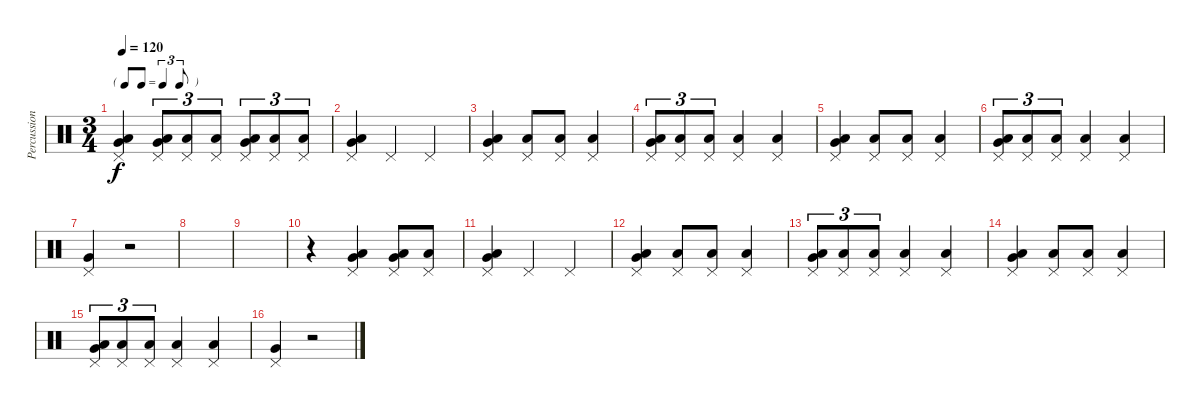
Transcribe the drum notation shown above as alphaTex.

\track ("Percussions" "Percussion") {instrument percussion}
\staff {score}
\articulation defaults
\ts (3 4)
\tf triplet8th
\tempo 120
\clef neutral
\ks c
("Pedal Hi-Hat (hit)" "Low Tom (hit)" "Very Low Tom (hit)").4{dy f} ("Pedal Hi-Hat (hit)" "Low Tom (hit)" "Very Low Tom (hit)").8{tu (3 2)} ("Pedal Hi-Hat (hit)" "Low Tom (hit)").8{tu (3 2)} ("Pedal Hi-Hat (hit)" "Low Tom (hit)").8{tu (3 2)} ("Pedal Hi-Hat (hit)" "Low Tom (hit)" "Very Low Tom (hit)").8{tu (3 2)} ("Pedal Hi-Hat (hit)" "Low Tom (hit)").8{tu (3 2)} ("Pedal Hi-Hat (hit)" "Low Tom (hit)").8{tu (3 2)} |
("Pedal Hi-Hat (hit)" "Low Tom (hit)" "Very Low Tom (hit)").4 "Pedal Hi-Hat (hit)".4 "Pedal Hi-Hat (hit)".4 |
("Pedal Hi-Hat (hit)" "Low Tom (hit)" "Very Low Tom (hit)").4 ("Pedal Hi-Hat (hit)" "Low Tom (hit)").8 ("Pedal Hi-Hat (hit)" "Low Tom (hit)").8 ("Pedal Hi-Hat (hit)" "Low Tom (hit)").4 |
("Pedal Hi-Hat (hit)" "Low Tom (hit)" "Very Low Tom (hit)").8{tu (3 2)} ("Pedal Hi-Hat (hit)" "Low Tom (hit)").8{tu (3 2)} ("Pedal Hi-Hat (hit)" "Low Tom (hit)").8{tu (3 2)} ("Pedal Hi-Hat (hit)" "Low Tom (hit)").4 ("Pedal Hi-Hat (hit)" "Low Tom (hit)").4 |
("Pedal Hi-Hat (hit)" "Low Tom (hit)" "Very Low Tom (hit)").4 ("Pedal Hi-Hat (hit)" "Low Tom (hit)").8 ("Pedal Hi-Hat (hit)" "Low Tom (hit)").8 ("Pedal Hi-Hat (hit)" "Low Tom (hit)").4 |
("Pedal Hi-Hat (hit)" "Low Tom (hit)" "Very Low Tom (hit)").8{tu (3 2)} ("Pedal Hi-Hat (hit)" "Low Tom (hit)").8{tu (3 2)} ("Pedal Hi-Hat (hit)" "Low Tom (hit)").8{tu (3 2)} ("Pedal Hi-Hat (hit)" "Low Tom (hit)").4 ("Pedal Hi-Hat (hit)" "Low Tom (hit)").4 |
("Pedal Hi-Hat (hit)" "Very Low Tom (hit)").4 r.2 |
|
|
r.4 ("Pedal Hi-Hat (hit)" "Low Tom (hit)" "Very Low Tom (hit)").4 ("Pedal Hi-Hat (hit)" "Low Tom (hit)" "Very Low Tom (hit)").8 ("Pedal Hi-Hat (hit)" "Low Tom (hit)").8 |
("Pedal Hi-Hat (hit)" "Low Tom (hit)" "Very Low Tom (hit)").4 "Pedal Hi-Hat (hit)".4 "Pedal Hi-Hat (hit)".4 |
("Pedal Hi-Hat (hit)" "Low Tom (hit)" "Very Low Tom (hit)").4 ("Pedal Hi-Hat (hit)" "Low Tom (hit)").8 ("Pedal Hi-Hat (hit)" "Low Tom (hit)").8 ("Pedal Hi-Hat (hit)" "Low Tom (hit)").4 |
("Pedal Hi-Hat (hit)" "Low Tom (hit)" "Very Low Tom (hit)").8{tu (3 2)} ("Pedal Hi-Hat (hit)" "Low Tom (hit)").8{tu (3 2)} ("Pedal Hi-Hat (hit)" "Low Tom (hit)").8{tu (3 2)} ("Pedal Hi-Hat (hit)" "Low Tom (hit)").4 ("Pedal Hi-Hat (hit)" "Low Tom (hit)").4 |
("Pedal Hi-Hat (hit)" "Low Tom (hit)" "Very Low Tom (hit)").4 ("Pedal Hi-Hat (hit)" "Low Tom (hit)").8 ("Pedal Hi-Hat (hit)" "Low Tom (hit)").8 ("Pedal Hi-Hat (hit)" "Low Tom (hit)").4 |
("Pedal Hi-Hat (hit)" "Low Tom (hit)" "Very Low Tom (hit)").8{tu (3 2)} ("Pedal Hi-Hat (hit)" "Low Tom (hit)").8{tu (3 2)} ("Pedal Hi-Hat (hit)" "Low Tom (hit)").8{tu (3 2)} ("Pedal Hi-Hat (hit)" "Low Tom (hit)").4 ("Pedal Hi-Hat (hit)" "Low Tom (hit)").4 |
("Pedal Hi-Hat (hit)" "Very Low Tom (hit)").4 r.2
